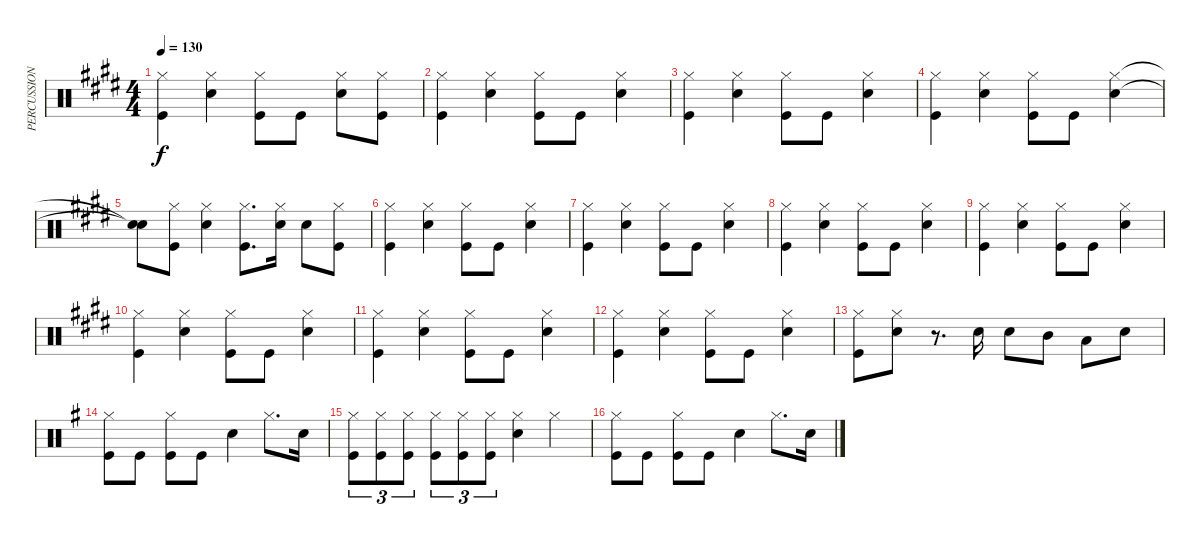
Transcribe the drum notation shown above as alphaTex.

\track ("PERCUSSION" "PERCUSSION") {instrument percussion}
\staff {score}
\articulation defaults
\ts (4 4)
\tempo 130
\clef neutral
\ks e
("Hi-Hat (closed)" "Kick (hit)").4{dy f} ("Hi-Hat (closed)" "Snare (hit) 2").4 ("Hi-Hat (closed)" "Kick (hit)").8 "Kick (hit)".8 ("Hi-Hat (closed)" "Snare (hit) 2").8 ("Hi-Hat (closed)" "Kick (hit)").8 |
("Hi-Hat (closed)" "Kick (hit)").4 ("Hi-Hat (closed)" "Snare (hit) 2").4 ("Hi-Hat (closed)" "Kick (hit)").8 "Kick (hit)".8 ("Hi-Hat (closed)" "Snare (hit) 2").4 |
("Hi-Hat (closed)" "Kick (hit)").4 ("Hi-Hat (closed)" "Snare (hit) 2").4 ("Hi-Hat (closed)" "Kick (hit)").8 "Kick (hit)".8 ("Hi-Hat (closed)" "Snare (hit) 2").4 |
("Hi-Hat (closed)" "Kick (hit)").4 ("Hi-Hat (closed)" "Snare (hit) 2").4 ("Hi-Hat (closed)" "Kick (hit)").8 "Kick (hit)".8 ("Hi-Hat (closed)" "Snare (hit) 2").4 |
("Snare (hit)"{t} "Snare (hit)"{t}).8 ("Hi-Hat (closed)" "Kick (hit)").8 ("Hi-Hat (closed)" "Snare (hit) 2").4 ("Hi-Hat (closed)" "Kick (hit)").8{d} ("Hi-Hat (closed)" "Snare (hit) 2").16 "Snare (hit) 2".8 ("Hi-Hat (closed)" "Kick (hit)").8 |
("Hi-Hat (closed)" "Kick (hit)").4 ("Hi-Hat (closed)" "Snare (hit) 2").4 ("Hi-Hat (closed)" "Kick (hit)").8 "Kick (hit)".8 ("Hi-Hat (closed)" "Snare (hit) 2").4 |
("Hi-Hat (closed)" "Kick (hit)").4 ("Hi-Hat (closed)" "Snare (hit) 2").4 ("Hi-Hat (closed)" "Kick (hit)").8 "Kick (hit)".8 ("Hi-Hat (closed)" "Snare (hit) 2").4 |
("Hi-Hat (closed)" "Kick (hit)").4 ("Hi-Hat (closed)" "Snare (hit) 2").4 ("Hi-Hat (closed)" "Kick (hit)").8 "Kick (hit)".8 ("Hi-Hat (closed)" "Snare (hit) 2").4 |
("Hi-Hat (closed)" "Kick (hit)").4 ("Hi-Hat (closed)" "Snare (hit) 2").4 ("Hi-Hat (closed)" "Kick (hit)").8 "Kick (hit)".8 ("Hi-Hat (closed)" "Snare (hit) 2").4 |
("Hi-Hat (closed)" "Kick (hit)").4 ("Hi-Hat (closed)" "Snare (hit) 2").4 ("Hi-Hat (closed)" "Kick (hit)").8 "Kick (hit)".8 ("Hi-Hat (closed)" "Snare (hit) 2").4 |
("Hi-Hat (closed)" "Kick (hit)").4 ("Hi-Hat (closed)" "Snare (hit) 2").4 ("Hi-Hat (closed)" "Kick (hit)").8 "Kick (hit)".8 ("Hi-Hat (closed)" "Snare (hit) 2").4 |
("Hi-Hat (closed)" "Kick (hit)").4 ("Hi-Hat (closed)" "Snare (hit) 2").4 ("Hi-Hat (closed)" "Kick (hit)").8 "Kick (hit)".8 ("Hi-Hat (closed)" "Snare (hit) 2").4 |
("Hi-Hat (closed)" "Kick (hit)").8 ("Hi-Hat (closed)" "Snare (hit) 2").8 r.8{d} "Snare (hit) 2".16 "Snare (hit) 2".8 "Mid Tom (hit)".8 "Low Tom (hit)".8 "Snare (hit) 2".8 |
\ks eminor
("Hi-Hat (closed)" "Kick (hit)").8 "Kick (hit)".8 ("Hi-Hat (closed)" "Kick (hit)").8 "Kick (hit)".8 "Snare (hit) 2".4 "Hi-Hat (closed)".8{d} "Snare (hit) 2".16 |
("Hi-Hat (closed)" "Kick (hit)").8{tu (3 2)} ("Hi-Hat (closed)" "Kick (hit)").8{tu (3 2)} ("Hi-Hat (closed)" "Kick (hit)").8{tu (3 2)} ("Hi-Hat (closed)" "Kick (hit)").8{tu (3 2)} ("Hi-Hat (closed)" "Kick (hit)").8{tu (3 2)} ("Hi-Hat (closed)" "Kick (hit)").8{tu (3 2)} ("Hi-Hat (closed)" "Snare (hit) 2").4 "Hi-Hat (closed)".4 |
("Hi-Hat (closed)" "Kick (hit)").8 "Kick (hit)".8 ("Hi-Hat (closed)" "Kick (hit)").8 "Kick (hit)".8 "Snare (hit) 2".4 "Hi-Hat (closed)".8{d} "Snare (hit) 2".16
